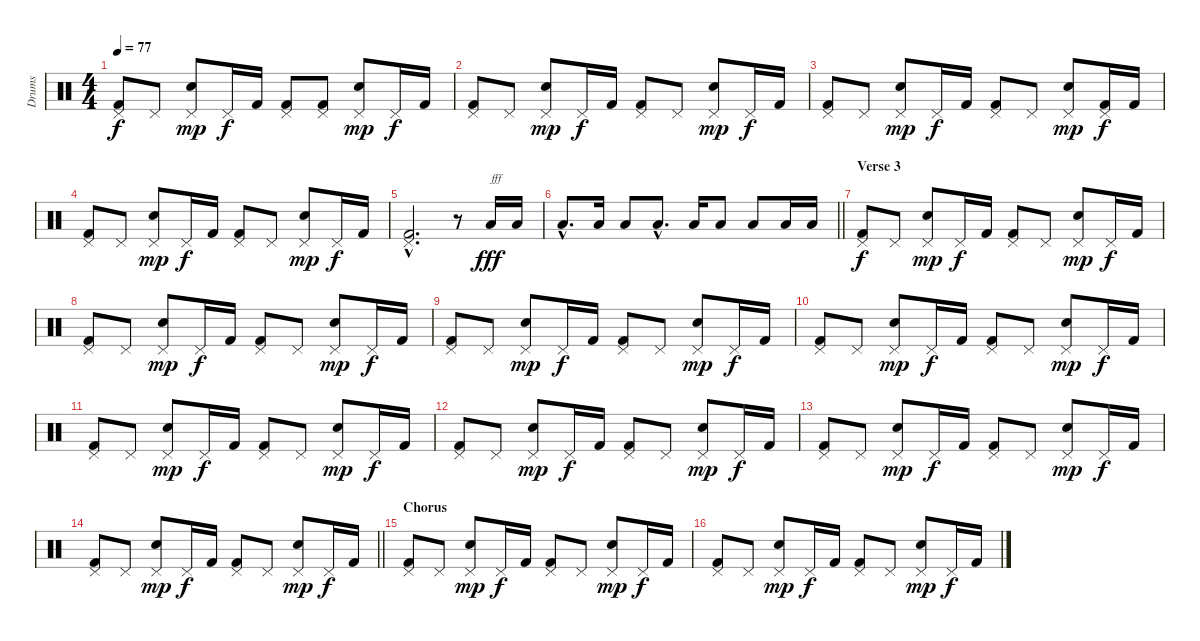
\track ("Drums" "Drums") {instrument percussion}
\staff {score}
\articulation defaults
\ts (4 4)
\tempo 77
\clef neutral
\ks c
("Pedal Hi-Hat (hit)" "Kick (hit) 2").8{dy f} "Pedal Hi-Hat (hit)".8 ("Pedal Hi-Hat (hit)" "Snare (hit) 2").8{dy mp} "Pedal Hi-Hat (hit)".16{dy f} "Kick (hit) 2".16 ("Pedal Hi-Hat (hit)" "Kick (hit) 2").8 ("Pedal Hi-Hat (hit)" "Kick (hit) 2").8 ("Pedal Hi-Hat (hit)" "Snare (hit) 2").8{dy mp} "Pedal Hi-Hat (hit)".16{dy f} "Kick (hit) 2".16 |
("Pedal Hi-Hat (hit)" "Kick (hit) 2").8 "Pedal Hi-Hat (hit)".8 ("Pedal Hi-Hat (hit)" "Snare (hit) 2").8{dy mp} "Pedal Hi-Hat (hit)".16{dy f} "Kick (hit) 2".16 ("Pedal Hi-Hat (hit)" "Kick (hit) 2").8 "Pedal Hi-Hat (hit)".8 ("Pedal Hi-Hat (hit)" "Snare (hit) 2").8{dy mp} "Pedal Hi-Hat (hit)".16{dy f} "Kick (hit) 2".16 |
("Pedal Hi-Hat (hit)" "Kick (hit) 2").8 "Pedal Hi-Hat (hit)".8 ("Pedal Hi-Hat (hit)" "Snare (hit) 2").8{dy mp} "Pedal Hi-Hat (hit)".16{dy f} "Kick (hit) 2".16 ("Pedal Hi-Hat (hit)" "Kick (hit) 2").8 "Pedal Hi-Hat (hit)".8 ("Pedal Hi-Hat (hit)" "Snare (hit) 2").8{dy mp} ("Pedal Hi-Hat (hit)" "Kick (hit) 2").16{dy f} "Kick (hit) 2".16 |
("Pedal Hi-Hat (hit)" "Kick (hit) 2").8 "Pedal Hi-Hat (hit)".8 ("Pedal Hi-Hat (hit)" "Snare (hit) 2").8{dy mp} "Pedal Hi-Hat (hit)".16{dy f} "Kick (hit) 2".16 ("Pedal Hi-Hat (hit)" "Kick (hit) 2").8 "Pedal Hi-Hat (hit)".8 ("Pedal Hi-Hat (hit)" "Snare (hit) 2").8{dy mp} "Pedal Hi-Hat (hit)".16{dy f} "Kick (hit) 2".16 |
("Pedal Hi-Hat (hit)"{hac} "Kick (hit) 2"{hac}).2{d} r.8 "Low Floor Tom (hit)".16{txt "fff" dy fff volume 16} "Low Floor Tom (hit)".16 |
\barLineRight lightlight "Low Tom (hit)"{hac}.8{d} "Low Floor Tom (hit)".16 "Low Tom (hit)".8 "Low Floor Tom (hit)"{hac}.8{d} "Low Floor Tom (hit)".16 "Low Tom (hit)".8 "Low Floor Tom (hit)".8 "Low Floor Tom (hit)".16 "Low Floor Tom (hit)".16
|
\section ("" "Verse 3")
("Pedal Hi-Hat (hit)" "Kick (hit) 2").8{dy f} "Pedal Hi-Hat (hit)".8 ("Pedal Hi-Hat (hit)" "Snare (hit) 2").8{dy mp} "Pedal Hi-Hat (hit)".16{dy f} "Kick (hit) 2".16 ("Pedal Hi-Hat (hit)" "Kick (hit) 2").8 "Pedal Hi-Hat (hit)".8 ("Pedal Hi-Hat (hit)" "Snare (hit) 2").8{dy mp} "Pedal Hi-Hat (hit)".16{dy f} "Kick (hit) 2".16 |
("Pedal Hi-Hat (hit)" "Kick (hit) 2").8 "Pedal Hi-Hat (hit)".8 ("Pedal Hi-Hat (hit)" "Snare (hit) 2").8{dy mp} "Pedal Hi-Hat (hit)".16{dy f} "Kick (hit) 2".16 ("Pedal Hi-Hat (hit)" "Kick (hit) 2").8 "Pedal Hi-Hat (hit)".8 ("Pedal Hi-Hat (hit)" "Snare (hit) 2").8{dy mp} "Pedal Hi-Hat (hit)".16{dy f} "Kick (hit) 2".16 |
("Pedal Hi-Hat (hit)" "Kick (hit) 2").8 "Pedal Hi-Hat (hit)".8 ("Pedal Hi-Hat (hit)" "Snare (hit) 2").8{dy mp} "Pedal Hi-Hat (hit)".16{dy f} "Kick (hit) 2".16 ("Pedal Hi-Hat (hit)" "Kick (hit) 2").8 "Pedal Hi-Hat (hit)".8 ("Pedal Hi-Hat (hit)" "Snare (hit) 2").8{dy mp} "Pedal Hi-Hat (hit)".16{dy f} "Kick (hit) 2".16 |
("Pedal Hi-Hat (hit)" "Kick (hit) 2").8 "Pedal Hi-Hat (hit)".8 ("Pedal Hi-Hat (hit)" "Snare (hit) 2").8{dy mp} "Pedal Hi-Hat (hit)".16{dy f} "Kick (hit) 2".16 ("Pedal Hi-Hat (hit)" "Kick (hit) 2").8 "Pedal Hi-Hat (hit)".8 ("Pedal Hi-Hat (hit)" "Snare (hit) 2").8{dy mp} "Pedal Hi-Hat (hit)".16{dy f} "Kick (hit) 2".16 |
("Pedal Hi-Hat (hit)" "Kick (hit) 2").8 "Pedal Hi-Hat (hit)".8 ("Pedal Hi-Hat (hit)" "Snare (hit) 2").8{dy mp} "Pedal Hi-Hat (hit)".16{dy f} "Kick (hit) 2".16 ("Pedal Hi-Hat (hit)" "Kick (hit) 2").8 "Pedal Hi-Hat (hit)".8 ("Pedal Hi-Hat (hit)" "Snare (hit) 2").8{dy mp} "Pedal Hi-Hat (hit)".16{dy f} "Kick (hit) 2".16 |
("Pedal Hi-Hat (hit)" "Kick (hit) 2").8 "Pedal Hi-Hat (hit)".8 ("Pedal Hi-Hat (hit)" "Snare (hit) 2").8{dy mp} "Pedal Hi-Hat (hit)".16{dy f} "Kick (hit) 2".16 ("Pedal Hi-Hat (hit)" "Kick (hit) 2").8 "Pedal Hi-Hat (hit)".8 ("Pedal Hi-Hat (hit)" "Snare (hit) 2").8{dy mp} "Pedal Hi-Hat (hit)".16{dy f} "Kick (hit) 2".16 |
("Pedal Hi-Hat (hit)" "Kick (hit) 2").8 "Pedal Hi-Hat (hit)".8 ("Pedal Hi-Hat (hit)" "Snare (hit) 2").8{dy mp} "Pedal Hi-Hat (hit)".16{dy f} "Kick (hit) 2".16 ("Pedal Hi-Hat (hit)" "Kick (hit) 2").8 "Pedal Hi-Hat (hit)".8 ("Pedal Hi-Hat (hit)" "Snare (hit) 2").8{dy mp} "Pedal Hi-Hat (hit)".16{dy f} "Kick (hit) 2".16 |
\barLineRight lightlight
("Pedal Hi-Hat (hit)" "Kick (hit) 2").8 "Pedal Hi-Hat (hit)".8 ("Pedal Hi-Hat (hit)" "Snare (hit) 2").8{dy mp} "Pedal Hi-Hat (hit)".16{dy f} "Kick (hit) 2".16 ("Pedal Hi-Hat (hit)" "Kick (hit) 2").8 "Pedal Hi-Hat (hit)".8 ("Pedal Hi-Hat (hit)" "Snare (hit) 2").8{dy mp} "Pedal Hi-Hat (hit)".16{dy f} "Kick (hit) 2".16 |
\section ("" "Chorus")
("Pedal Hi-Hat (hit)" "Kick (hit) 2").8 "Pedal Hi-Hat (hit)".8 ("Pedal Hi-Hat (hit)" "Snare (hit) 2").8{dy mp} "Pedal Hi-Hat (hit)".16{dy f} "Kick (hit) 2".16 ("Pedal Hi-Hat (hit)" "Kick (hit) 2").8 "Pedal Hi-Hat (hit)".8 ("Pedal Hi-Hat (hit)" "Snare (hit) 2").8{dy mp} "Pedal Hi-Hat (hit)".16{dy f} "Kick (hit) 2".16 |
("Pedal Hi-Hat (hit)" "Kick (hit) 2").8 "Pedal Hi-Hat (hit)".8 ("Pedal Hi-Hat (hit)" "Snare (hit) 2").8{dy mp} "Pedal Hi-Hat (hit)".16{dy f} "Kick (hit) 2".16 ("Pedal Hi-Hat (hit)" "Kick (hit) 2").8 "Pedal Hi-Hat (hit)".8 ("Pedal Hi-Hat (hit)" "Snare (hit) 2").8{dy mp} "Pedal Hi-Hat (hit)".16{dy f} "Kick (hit) 2".16
